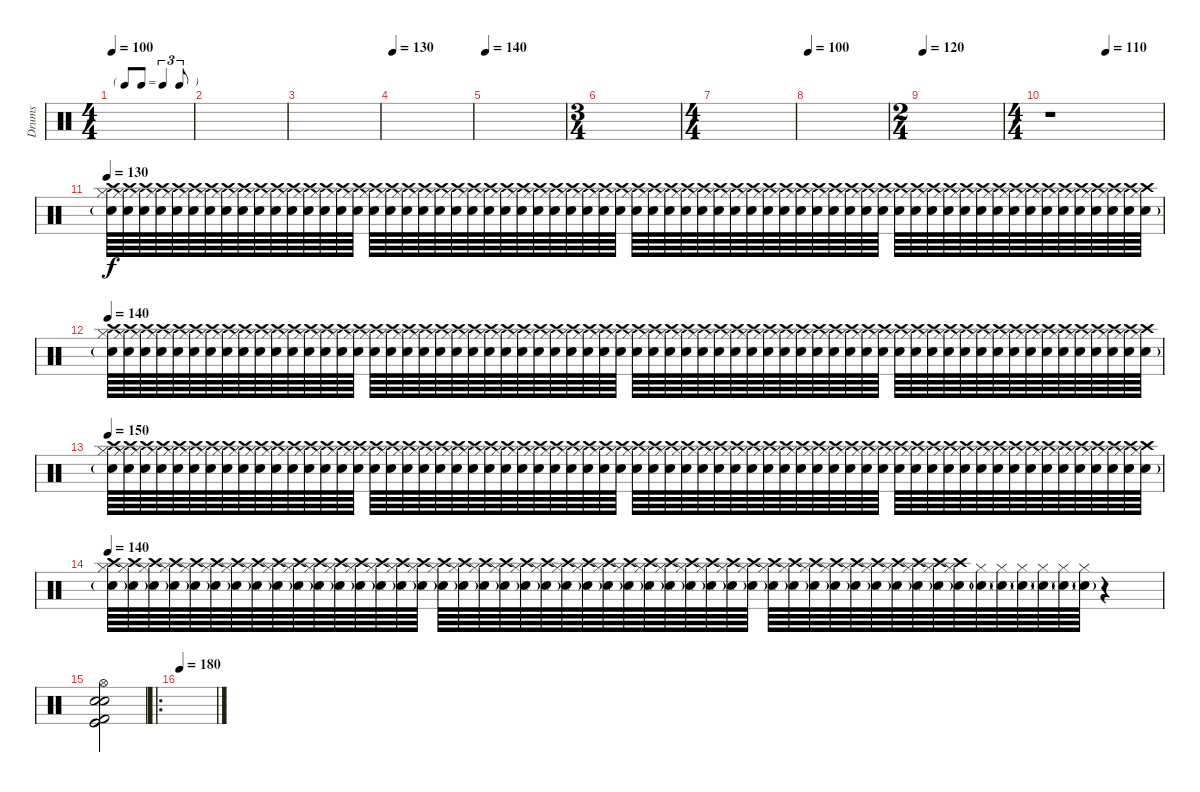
\track ("Drums" "Drums") {instrument percussion}
\staff {score}
\articulation defaults
\ts (4 4)
\tf triplet8th
\tempo 100
\tempo 140
\tempo 100
\clef neutral
\ks c
|
|
|
\tempo 130
|
\tempo 140
|
\ts (3 4)
|
\ts (4 4)
|
\tempo 100
|
\ts (2 4)
\tempo 120
|
\ts (4 4)
\tempo (110 0.5)
r.1 |
\tempo 130
("Hi-Hat (closed)" "Electric Snare (hit)"{g} "Crash high (hit)").64 ("Hi-Hat (closed)" "Electric Snare (hit)"{g} "Crash high (hit)").64 ("Hi-Hat (closed)" "Electric Snare (hit)"{g} "Crash high (hit)").64 ("Hi-Hat (closed)" "Electric Snare (hit)"{g} "Crash high (hit)").64 ("Hi-Hat (closed)" "Electric Snare (hit)"{g} "Crash high (hit)").64 ("Hi-Hat (closed)" "Electric Snare (hit)"{g} "Crash high (hit)").64 ("Hi-Hat (closed)" "Electric Snare (hit)"{g} "Crash high (hit)").64 ("Hi-Hat (closed)" "Electric Snare (hit)"{g} "Crash high (hit)").64 ("Hi-Hat (closed)" "Electric Snare (hit)"{g} "Crash high (hit)").64 ("Hi-Hat (closed)" "Electric Snare (hit)"{g} "Crash high (hit)").64 ("Hi-Hat (closed)" "Electric Snare (hit)"{g} "Crash high (hit)").64 ("Hi-Hat (closed)" "Electric Snare (hit)"{g} "Crash high (hit)").64 ("Hi-Hat (closed)" "Electric Snare (hit)"{g} "Crash high (hit)").64 ("Hi-Hat (closed)" "Electric Snare (hit)"{g} "Crash high (hit)").64 ("Hi-Hat (closed)" "Electric Snare (hit)"{g} "Crash high (hit)").64 ("Hi-Hat (closed)" "Electric Snare (hit)"{g} "Crash high (hit)").64 ("Hi-Hat (closed)" "Electric Snare (hit)"{g} "Crash high (hit)").64 ("Hi-Hat (closed)" "Electric Snare (hit)"{g} "Crash high (hit)").64 ("Hi-Hat (closed)" "Electric Snare (hit)"{g} "Crash high (hit)").64 ("Hi-Hat (closed)" "Electric Snare (hit)"{g} "Crash high (hit)").64 ("Hi-Hat (closed)" "Electric Snare (hit)"{g} "Crash high (hit)").64 ("Hi-Hat (closed)" "Electric Snare (hit)"{g} "Crash high (hit)").64 ("Hi-Hat (closed)" "Electric Snare (hit)"{g} "Crash high (hit)").64 ("Hi-Hat (closed)" "Electric Snare (hit)"{g} "Crash high (hit)").64 ("Hi-Hat (closed)" "Electric Snare (hit)"{g} "Crash high (hit)").64 ("Hi-Hat (closed)" "Electric Snare (hit)"{g} "Crash high (hit)").64 ("Hi-Hat (closed)" "Electric Snare (hit)"{g} "Crash high (hit)").64 ("Hi-Hat (closed)" "Electric Snare (hit)"{g} "Crash high (hit)").64 ("Hi-Hat (closed)" "Electric Snare (hit)"{g} "Crash high (hit)").64 ("Hi-Hat (closed)" "Electric Snare (hit)"{g} "Crash high (hit)").64 ("Hi-Hat (closed)" "Electric Snare (hit)"{g} "Crash high (hit)").64 ("Hi-Hat (closed)" "Electric Snare (hit)"{g} "Crash high (hit)").64 ("Hi-Hat (closed)" "Electric Snare (hit)"{g} "Crash high (hit)").64 ("Hi-Hat (closed)" "Electric Snare (hit)"{g} "Crash high (hit)").64 ("Hi-Hat (closed)" "Electric Snare (hit)"{g} "Crash high (hit)").64 ("Hi-Hat (closed)" "Electric Snare (hit)"{g} "Crash high (hit)").64 ("Hi-Hat (closed)" "Electric Snare (hit)"{g} "Crash high (hit)").64 ("Hi-Hat (closed)" "Electric Snare (hit)"{g} "Crash high (hit)").64 ("Hi-Hat (closed)" "Electric Snare (hit)"{g} "Crash high (hit)").64 ("Hi-Hat (closed)" "Electric Snare (hit)"{g} "Crash high (hit)").64 ("Hi-Hat (closed)" "Electric Snare (hit)"{g} "Crash high (hit)").64 ("Hi-Hat (closed)" "Electric Snare (hit)"{g} "Crash high (hit)").64 ("Hi-Hat (closed)" "Electric Snare (hit)"{g} "Crash high (hit)").64 ("Hi-Hat (closed)" "Electric Snare (hit)"{g} "Crash high (hit)").64 ("Hi-Hat (closed)" "Electric Snare (hit)"{g} "Crash high (hit)").64 ("Hi-Hat (closed)" "Electric Snare (hit)"{g} "Crash high (hit)").64 ("Hi-Hat (closed)" "Electric Snare (hit)"{g} "Crash high (hit)").64 ("Hi-Hat (closed)" "Electric Snare (hit)"{g} "Crash high (hit)").64 ("Hi-Hat (closed)" "Electric Snare (hit)"{g} "Crash high (hit)").64 ("Hi-Hat (closed)" "Electric Snare (hit)"{g} "Crash high (hit)").64 ("Hi-Hat (closed)" "Electric Snare (hit)"{g} "Crash high (hit)").64 ("Hi-Hat (closed)" "Electric Snare (hit)"{g} "Crash high (hit)").64 ("Hi-Hat (closed)" "Electric Snare (hit)"{g} "Crash high (hit)").64 ("Hi-Hat (closed)" "Electric Snare (hit)"{g} "Crash high (hit)").64 ("Hi-Hat (closed)" "Electric Snare (hit)"{g} "Crash high (hit)").64 ("Hi-Hat (closed)" "Electric Snare (hit)"{g} "Crash high (hit)").64 ("Hi-Hat (closed)" "Electric Snare (hit)"{g} "Crash high (hit)").64 ("Hi-Hat (closed)" "Electric Snare (hit)"{g} "Crash high (hit)").64 ("Hi-Hat (closed)" "Electric Snare (hit)"{g} "Crash high (hit)").64 ("Hi-Hat (closed)" "Electric Snare (hit)"{g} "Crash high (hit)").64 ("Hi-Hat (closed)" "Electric Snare (hit)"{g} "Crash high (hit)").64 ("Hi-Hat (closed)" "Electric Snare (hit)"{g} "Crash high (hit)").64 ("Hi-Hat (closed)" "Electric Snare (hit)"{g} "Crash high (hit)").64 ("Hi-Hat (closed)" "Electric Snare (hit)"{g} "Crash high (hit)").64 |
\tempo 140
("Hi-Hat (closed)" "Electric Snare (hit)"{g} "Crash high (hit)").64 ("Hi-Hat (closed)" "Electric Snare (hit)"{g} "Crash high (hit)").64 ("Hi-Hat (closed)" "Electric Snare (hit)"{g} "Crash high (hit)").64 ("Hi-Hat (closed)" "Electric Snare (hit)"{g} "Crash high (hit)").64 ("Hi-Hat (closed)" "Electric Snare (hit)"{g} "Crash high (hit)").64 ("Hi-Hat (closed)" "Electric Snare (hit)"{g} "Crash high (hit)").64 ("Hi-Hat (closed)" "Electric Snare (hit)"{g} "Crash high (hit)").64 ("Hi-Hat (closed)" "Electric Snare (hit)"{g} "Crash high (hit)").64 ("Hi-Hat (closed)" "Electric Snare (hit)"{g} "Crash high (hit)").64 ("Hi-Hat (closed)" "Electric Snare (hit)"{g} "Crash high (hit)").64 ("Hi-Hat (closed)" "Electric Snare (hit)"{g} "Crash high (hit)").64 ("Hi-Hat (closed)" "Electric Snare (hit)"{g} "Crash high (hit)").64 ("Hi-Hat (closed)" "Electric Snare (hit)"{g} "Crash high (hit)").64 ("Hi-Hat (closed)" "Electric Snare (hit)"{g} "Crash high (hit)").64 ("Hi-Hat (closed)" "Electric Snare (hit)"{g} "Crash high (hit)").64 ("Hi-Hat (closed)" "Electric Snare (hit)"{g} "Crash high (hit)").64 ("Hi-Hat (closed)" "Electric Snare (hit)"{g} "Crash high (hit)").64 ("Hi-Hat (closed)" "Electric Snare (hit)"{g} "Crash high (hit)").64 ("Hi-Hat (closed)" "Electric Snare (hit)"{g} "Crash high (hit)").64 ("Hi-Hat (closed)" "Electric Snare (hit)"{g} "Crash high (hit)").64 ("Hi-Hat (closed)" "Electric Snare (hit)"{g} "Crash high (hit)").64 ("Hi-Hat (closed)" "Electric Snare (hit)"{g} "Crash high (hit)").64 ("Hi-Hat (closed)" "Electric Snare (hit)"{g} "Crash high (hit)").64 ("Hi-Hat (closed)" "Electric Snare (hit)"{g} "Crash high (hit)").64 ("Hi-Hat (closed)" "Electric Snare (hit)"{g} "Crash high (hit)").64 ("Hi-Hat (closed)" "Electric Snare (hit)"{g} "Crash high (hit)").64 ("Hi-Hat (closed)" "Electric Snare (hit)"{g} "Crash high (hit)").64 ("Hi-Hat (closed)" "Electric Snare (hit)"{g} "Crash high (hit)").64 ("Hi-Hat (closed)" "Electric Snare (hit)"{g} "Crash high (hit)").64 ("Hi-Hat (closed)" "Electric Snare (hit)"{g} "Crash high (hit)").64 ("Hi-Hat (closed)" "Electric Snare (hit)"{g} "Crash high (hit)").64 ("Hi-Hat (closed)" "Electric Snare (hit)"{g} "Crash high (hit)").64 ("Hi-Hat (closed)" "Electric Snare (hit)"{g} "Crash high (hit)").64 ("Hi-Hat (closed)" "Electric Snare (hit)"{g} "Crash high (hit)").64 ("Hi-Hat (closed)" "Electric Snare (hit)"{g} "Crash high (hit)").64 ("Hi-Hat (closed)" "Electric Snare (hit)"{g} "Crash high (hit)").64 ("Hi-Hat (closed)" "Electric Snare (hit)"{g} "Crash high (hit)").64 ("Hi-Hat (closed)" "Electric Snare (hit)"{g} "Crash high (hit)").64 ("Hi-Hat (closed)" "Electric Snare (hit)"{g} "Crash high (hit)").64 ("Hi-Hat (closed)" "Electric Snare (hit)"{g} "Crash high (hit)").64 ("Hi-Hat (closed)" "Electric Snare (hit)"{g} "Crash high (hit)").64 ("Hi-Hat (closed)" "Electric Snare (hit)"{g} "Crash high (hit)").64 ("Hi-Hat (closed)" "Electric Snare (hit)"{g} "Crash high (hit)").64 ("Hi-Hat (closed)" "Electric Snare (hit)"{g} "Crash high (hit)").64 ("Hi-Hat (closed)" "Electric Snare (hit)"{g} "Crash high (hit)").64 ("Hi-Hat (closed)" "Electric Snare (hit)"{g} "Crash high (hit)").64 ("Hi-Hat (closed)" "Electric Snare (hit)"{g} "Crash high (hit)").64 ("Hi-Hat (closed)" "Electric Snare (hit)"{g} "Crash high (hit)").64 ("Hi-Hat (closed)" "Electric Snare (hit)"{g} "Crash high (hit)").64 ("Hi-Hat (closed)" "Electric Snare (hit)"{g} "Crash high (hit)").64 ("Hi-Hat (closed)" "Electric Snare (hit)"{g} "Crash high (hit)").64 ("Hi-Hat (closed)" "Electric Snare (hit)"{g} "Crash high (hit)").64 ("Hi-Hat (closed)" "Electric Snare (hit)"{g} "Crash high (hit)").64 ("Hi-Hat (closed)" "Electric Snare (hit)"{g} "Crash high (hit)").64 ("Hi-Hat (closed)" "Electric Snare (hit)"{g} "Crash high (hit)").64 ("Hi-Hat (closed)" "Electric Snare (hit)"{g} "Crash high (hit)").64 ("Hi-Hat (closed)" "Electric Snare (hit)"{g} "Crash high (hit)").64 ("Hi-Hat (closed)" "Electric Snare (hit)"{g} "Crash high (hit)").64 ("Hi-Hat (closed)" "Electric Snare (hit)"{g} "Crash high (hit)").64 ("Hi-Hat (closed)" "Electric Snare (hit)"{g} "Crash high (hit)").64 ("Hi-Hat (closed)" "Electric Snare (hit)"{g} "Crash high (hit)").64 ("Hi-Hat (closed)" "Electric Snare (hit)"{g} "Crash high (hit)").64 ("Hi-Hat (closed)" "Electric Snare (hit)"{g} "Crash high (hit)").64 ("Hi-Hat (closed)" "Electric Snare (hit)"{g} "Crash high (hit)").64 |
\tempo 150
("Hi-Hat (closed)" "Electric Snare (hit)"{g} "Crash high (hit)").64 ("Hi-Hat (closed)" "Electric Snare (hit)"{g} "Crash high (hit)").64 ("Hi-Hat (closed)" "Electric Snare (hit)"{g} "Crash high (hit)").64 ("Hi-Hat (closed)" "Electric Snare (hit)"{g} "Crash high (hit)").64 ("Hi-Hat (closed)" "Electric Snare (hit)"{g} "Crash high (hit)").64 ("Hi-Hat (closed)" "Electric Snare (hit)"{g} "Crash high (hit)").64 ("Hi-Hat (closed)" "Electric Snare (hit)"{g} "Crash high (hit)").64 ("Hi-Hat (closed)" "Electric Snare (hit)"{g} "Crash high (hit)").64 ("Hi-Hat (closed)" "Electric Snare (hit)"{g} "Crash high (hit)").64 ("Hi-Hat (closed)" "Electric Snare (hit)"{g} "Crash high (hit)").64 ("Hi-Hat (closed)" "Electric Snare (hit)"{g} "Crash high (hit)").64 ("Hi-Hat (closed)" "Electric Snare (hit)"{g} "Crash high (hit)").64 ("Hi-Hat (closed)" "Electric Snare (hit)"{g} "Crash high (hit)").64 ("Hi-Hat (closed)" "Electric Snare (hit)"{g} "Crash high (hit)").64 ("Hi-Hat (closed)" "Electric Snare (hit)"{g} "Crash high (hit)").64 ("Hi-Hat (closed)" "Electric Snare (hit)"{g} "Crash high (hit)").64 ("Hi-Hat (closed)" "Electric Snare (hit)"{g} "Crash high (hit)").64 ("Hi-Hat (closed)" "Electric Snare (hit)"{g} "Crash high (hit)").64 ("Hi-Hat (closed)" "Electric Snare (hit)"{g} "Crash high (hit)").64 ("Hi-Hat (closed)" "Electric Snare (hit)"{g} "Crash high (hit)").64 ("Hi-Hat (closed)" "Electric Snare (hit)"{g} "Crash high (hit)").64 ("Hi-Hat (closed)" "Electric Snare (hit)"{g} "Crash high (hit)").64 ("Hi-Hat (closed)" "Electric Snare (hit)"{g} "Crash high (hit)").64 ("Hi-Hat (closed)" "Electric Snare (hit)"{g} "Crash high (hit)").64 ("Hi-Hat (closed)" "Electric Snare (hit)"{g} "Crash high (hit)").64 ("Hi-Hat (closed)" "Electric Snare (hit)"{g} "Crash high (hit)").64 ("Hi-Hat (closed)" "Electric Snare (hit)"{g} "Crash high (hit)").64 ("Hi-Hat (closed)" "Electric Snare (hit)"{g} "Crash high (hit)").64 ("Hi-Hat (closed)" "Electric Snare (hit)"{g} "Crash high (hit)").64 ("Hi-Hat (closed)" "Electric Snare (hit)"{g} "Crash high (hit)").64 ("Hi-Hat (closed)" "Electric Snare (hit)"{g} "Crash high (hit)").64 ("Hi-Hat (closed)" "Electric Snare (hit)"{g} "Crash high (hit)").64 ("Hi-Hat (closed)" "Electric Snare (hit)"{g} "Crash high (hit)").64 ("Hi-Hat (closed)" "Electric Snare (hit)"{g} "Crash high (hit)").64 ("Hi-Hat (closed)" "Electric Snare (hit)"{g} "Crash high (hit)").64 ("Hi-Hat (closed)" "Electric Snare (hit)"{g} "Crash high (hit)").64 ("Hi-Hat (closed)" "Electric Snare (hit)"{g} "Crash high (hit)").64 ("Hi-Hat (closed)" "Electric Snare (hit)"{g} "Crash high (hit)").64 ("Hi-Hat (closed)" "Electric Snare (hit)"{g} "Crash high (hit)").64 ("Hi-Hat (closed)" "Electric Snare (hit)"{g} "Crash high (hit)").64 ("Hi-Hat (closed)" "Electric Snare (hit)"{g} "Crash high (hit)").64 ("Hi-Hat (closed)" "Electric Snare (hit)"{g} "Crash high (hit)").64 ("Hi-Hat (closed)" "Electric Snare (hit)"{g} "Crash high (hit)").64 ("Hi-Hat (closed)" "Electric Snare (hit)"{g} "Crash high (hit)").64 ("Hi-Hat (closed)" "Electric Snare (hit)"{g} "Crash high (hit)").64 ("Hi-Hat (closed)" "Electric Snare (hit)"{g} "Crash high (hit)").64 ("Hi-Hat (closed)" "Electric Snare (hit)"{g} "Crash high (hit)").64 ("Hi-Hat (closed)" "Electric Snare (hit)"{g} "Crash high (hit)").64 ("Hi-Hat (closed)" "Electric Snare (hit)"{g} "Crash high (hit)").64 ("Hi-Hat (closed)" "Electric Snare (hit)"{g} "Crash high (hit)").64 ("Hi-Hat (closed)" "Electric Snare (hit)"{g} "Crash high (hit)").64 ("Hi-Hat (closed)" "Electric Snare (hit)"{g} "Crash high (hit)").64 ("Hi-Hat (closed)" "Electric Snare (hit)"{g} "Crash high (hit)").64 ("Hi-Hat (closed)" "Electric Snare (hit)"{g} "Crash high (hit)").64 ("Hi-Hat (closed)" "Electric Snare (hit)"{g} "Crash high (hit)").64 ("Hi-Hat (closed)" "Electric Snare (hit)"{g} "Crash high (hit)").64 ("Hi-Hat (closed)" "Electric Snare (hit)"{g} "Crash high (hit)").64 ("Hi-Hat (closed)" "Electric Snare (hit)"{g} "Crash high (hit)").64 ("Hi-Hat (closed)" "Electric Snare (hit)"{g} "Crash high (hit)").64 ("Hi-Hat (closed)" "Electric Snare (hit)"{g} "Crash high (hit)").64 ("Hi-Hat (closed)" "Electric Snare (hit)"{g} "Crash high (hit)").64 ("Hi-Hat (closed)" "Electric Snare (hit)"{g} "Crash high (hit)").64 ("Hi-Hat (closed)" "Electric Snare (hit)"{g} "Crash high (hit)").64 ("Hi-Hat (closed)" "Electric Snare (hit)"{g} "Crash high (hit)").64 |
\tempo 140
("Hi-Hat (closed)" "Electric Snare (hit)"{g} "Crash high (hit)").64 ("Hi-Hat (closed)" "Electric Snare (hit)"{g} "Crash high (hit)").64 ("Hi-Hat (closed)" "Electric Snare (hit)"{g} "Crash high (hit)").64 ("Hi-Hat (closed)" "Electric Snare (hit)"{g} "Crash high (hit)").64 ("Hi-Hat (closed)" "Electric Snare (hit)"{g} "Crash high (hit)").64 ("Hi-Hat (closed)" "Electric Snare (hit)"{g} "Crash high (hit)").64 ("Hi-Hat (closed)" "Electric Snare (hit)"{g} "Crash high (hit)").64 ("Hi-Hat (closed)" "Electric Snare (hit)"{g} "Crash high (hit)").64 ("Hi-Hat (closed)" "Electric Snare (hit)"{g} "Crash high (hit)").64 ("Hi-Hat (closed)" "Electric Snare (hit)"{g} "Crash high (hit)").64 ("Hi-Hat (closed)" "Electric Snare (hit)"{g} "Crash high (hit)").64 ("Hi-Hat (closed)" "Electric Snare (hit)"{g} "Crash high (hit)").64 ("Hi-Hat (closed)" "Electric Snare (hit)"{g} "Crash high (hit)").64 ("Hi-Hat (closed)" "Electric Snare (hit)"{g} "Crash high (hit)").64 ("Hi-Hat (closed)" "Electric Snare (hit)"{g} "Crash high (hit)").64 ("Hi-Hat (closed)" "Electric Snare (hit)"{g} "Crash high (hit)").64 ("Hi-Hat (closed)" "Electric Snare (hit)"{g} "Crash high (hit)").64 ("Hi-Hat (closed)" "Electric Snare (hit)"{g} "Crash high (hit)").64 ("Hi-Hat (closed)" "Electric Snare (hit)"{g} "Crash high (hit)").64 ("Hi-Hat (closed)" "Electric Snare (hit)"{g} "Crash high (hit)").64 ("Hi-Hat (closed)" "Electric Snare (hit)"{g} "Crash high (hit)").64 ("Hi-Hat (closed)" "Electric Snare (hit)"{g} "Crash high (hit)").64 ("Hi-Hat (closed)" "Electric Snare (hit)"{g} "Crash high (hit)").64 ("Hi-Hat (closed)" "Electric Snare (hit)"{g} "Crash high (hit)").64 ("Hi-Hat (closed)" "Electric Snare (hit)"{g} "Crash high (hit)").64 ("Hi-Hat (closed)" "Electric Snare (hit)"{g} "Crash high (hit)").64 ("Hi-Hat (closed)" "Electric Snare (hit)"{g} "Crash high (hit)").64 ("Hi-Hat (closed)" "Electric Snare (hit)"{g} "Crash high (hit)").64 ("Hi-Hat (closed)" "Electric Snare (hit)"{g} "Crash high (hit)").64 ("Hi-Hat (closed)" "Electric Snare (hit)"{g} "Crash high (hit)").64 ("Hi-Hat (closed)" "Electric Snare (hit)"{g} "Crash high (hit)").64 ("Hi-Hat (closed)" "Electric Snare (hit)"{g} "Crash high (hit)").64 ("Hi-Hat (closed)" "Electric Snare (hit)"{g} "Crash high (hit)").64 ("Hi-Hat (closed)" "Electric Snare (hit)"{g} "Crash high (hit)").64 ("Hi-Hat (closed)" "Electric Snare (hit)"{g} "Crash high (hit)").64 ("Hi-Hat (closed)" "Electric Snare (hit)"{g} "Crash high (hit)").64 ("Hi-Hat (closed)" "Electric Snare (hit)"{g} "Crash high (hit)").64 ("Hi-Hat (closed)" "Electric Snare (hit)"{g} "Crash high (hit)").64 ("Hi-Hat (closed)" "Electric Snare (hit)"{g} "Crash high (hit)").64 ("Hi-Hat (closed)" "Electric Snare (hit)"{g} "Crash high (hit)").64 ("Hi-Hat (closed)" "Electric Snare (hit)"{g} "Crash high (hit)").64 ("Hi-Hat (closed)" "Electric Snare (hit)"{g} "Crash high (hit)").64 ("Hi-Hat (closed)" "Electric Snare (hit)"{g}).64 ("Hi-Hat (closed)" "Electric Snare (hit)"{g}).64 ("Hi-Hat (closed)" "Electric Snare (hit)"{g}).64 ("Hi-Hat (closed)" "Electric Snare (hit)"{g}).64 ("Hi-Hat (closed)" "Electric Snare (hit)"{g}).64 ("Hi-Hat (closed)" "Electric Snare (hit)"{g}).64 r.4 |
("Kick (hit) 2" "Kick (hit)" "Kick (hit)" "Hi-Hat (open)" "Snare (hit)" "Electric Snare (hit)").2{dy f} |
\ro
\tempo 180
